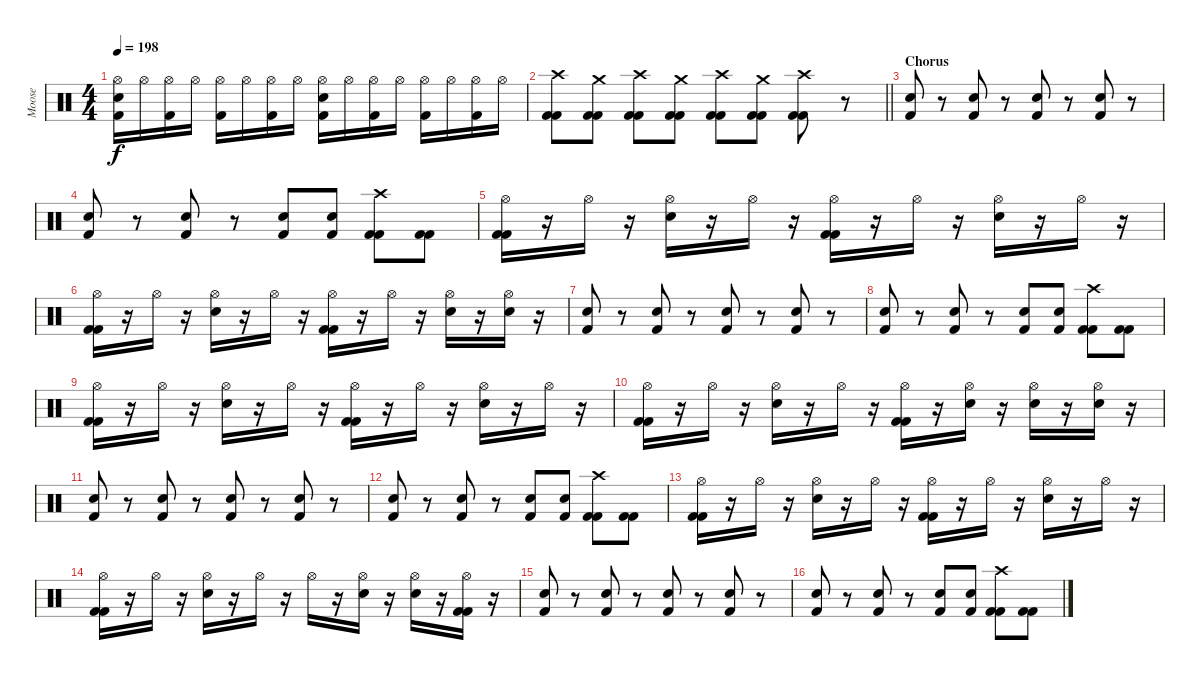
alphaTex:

\track ("Moose" "Moose") {instrument percussion}
\staff {score}
\articulation defaults
\ts (4 4)
\tempo 198
\clef neutral
\ks c
("Hi-Hat (open)" "Electric Snare (hit)" "Kick (hit) 2").16{dy f} "Hi-Hat (open)".16 ("Hi-Hat (open)" "Kick (hit) 2").16 "Hi-Hat (open)".16 ("Hi-Hat (open)" "Kick (hit) 2").16 "Hi-Hat (open)".16 ("Hi-Hat (open)" "Kick (hit) 2").16 "Hi-Hat (open)".16 ("Hi-Hat (open)" "Electric Snare (hit)" "Kick (hit) 2").16 "Hi-Hat (open)".16 ("Hi-Hat (open)" "Kick (hit) 2").16 "Hi-Hat (open)".16 ("Hi-Hat (open)" "Kick (hit) 2").16 "Hi-Hat (open)".16 ("Hi-Hat (open)" "Kick (hit) 2").16 "Hi-Hat (open)".16 |
\barLineRight lightlight
("Crash high (hit)" "Kick (hit) 2" "Kick (hit) 2").8 ("Crash medium (hit)" "Kick (hit) 2" "Kick (hit) 2").8 ("Crash high (hit)" "Kick (hit) 2" "Kick (hit) 2").8 ("Crash medium (hit)" "Kick (hit) 2" "Kick (hit) 2").8 ("Crash high (hit)" "Kick (hit) 2" "Kick (hit) 2").8 ("Crash medium (hit)" "Kick (hit) 2" "Kick (hit) 2").8 ("Crash high (hit)" "Kick (hit) 2" "Kick (hit) 2").8 r.8 |
\section ("" "Chorus")
("Electric Snare (hit)" "Kick (hit) 2").8 r.8 ("Electric Snare (hit)" "Kick (hit) 2").8 r.8 ("Electric Snare (hit)" "Kick (hit) 2").8 r.8 ("Electric Snare (hit)" "Kick (hit) 2").8 r.8 |
("Electric Snare (hit)" "Kick (hit) 2").8 r.8 ("Electric Snare (hit)" "Kick (hit) 2").8 r.8 ("Electric Snare (hit)" "Kick (hit) 2").8 ("Electric Snare (hit)" "Kick (hit) 2").8 ("Crash high (hit)" "Kick (hit) 2" "Kick (hit) 2").8 ("Kick (hit) 2" "Kick (hit) 2").8 |
("Hi-Hat (open)" "Kick (hit) 2" "Kick (hit) 2").16 r.16 "Hi-Hat (open)".16 r.16 ("Hi-Hat (open)" "Electric Snare (hit)").16 r.16 "Hi-Hat (open)".16 r.16 ("Hi-Hat (open)" "Kick (hit) 2" "Kick (hit) 2").16 r.16 "Hi-Hat (open)".16 r.16 ("Hi-Hat (open)" "Electric Snare (hit)").16 r.16 "Hi-Hat (open)".16 r.16 |
("Hi-Hat (open)" "Kick (hit) 2" "Kick (hit) 2").16 r.16 "Hi-Hat (open)".16 r.16 ("Hi-Hat (open)" "Electric Snare (hit)").16 r.16 "Hi-Hat (open)".16 r.16 ("Hi-Hat (open)" "Kick (hit) 2" "Kick (hit) 2").16 r.16 "Hi-Hat (open)".16 r.16 ("Hi-Hat (open)" "Electric Snare (hit)").16 r.16 ("Hi-Hat (open)" "Electric Snare (hit)").16 r.16 |
("Electric Snare (hit)" "Kick (hit) 2").8 r.8 ("Electric Snare (hit)" "Kick (hit) 2").8 r.8 ("Electric Snare (hit)" "Kick (hit) 2").8 r.8 ("Electric Snare (hit)" "Kick (hit) 2").8 r.8 |
("Electric Snare (hit)" "Kick (hit) 2").8 r.8 ("Electric Snare (hit)" "Kick (hit) 2").8 r.8 ("Electric Snare (hit)" "Kick (hit) 2").8 ("Electric Snare (hit)" "Kick (hit) 2").8 ("Crash high (hit)" "Kick (hit) 2" "Kick (hit) 2").8 ("Kick (hit) 2" "Kick (hit) 2").8 |
("Hi-Hat (open)" "Kick (hit) 2" "Kick (hit) 2").16 r.16 "Hi-Hat (open)".16 r.16 ("Hi-Hat (open)" "Electric Snare (hit)").16 r.16 "Hi-Hat (open)".16 r.16 ("Hi-Hat (open)" "Kick (hit) 2" "Kick (hit) 2").16 r.16 "Hi-Hat (open)".16 r.16 ("Hi-Hat (open)" "Electric Snare (hit)").16 r.16 "Hi-Hat (open)".16 r.16 |
("Hi-Hat (open)" "Kick (hit) 2" "Kick (hit) 2").16 r.16 "Hi-Hat (open)".16 r.16 ("Hi-Hat (open)" "Electric Snare (hit)").16 r.16 "Hi-Hat (open)".16 r.16 ("Hi-Hat (open)" "Kick (hit) 2" "Kick (hit) 2").16 r.16 ("Hi-Hat (open)" "Electric Snare (hit)").16 r.16 ("Hi-Hat (open)" "Electric Snare (hit)").16 r.16 ("Hi-Hat (open)" "Electric Snare (hit)").16 r.16 |
("Electric Snare (hit)" "Kick (hit) 2").8 r.8 ("Electric Snare (hit)" "Kick (hit) 2").8 r.8 ("Electric Snare (hit)" "Kick (hit) 2").8 r.8 ("Electric Snare (hit)" "Kick (hit) 2").8 r.8 |
("Electric Snare (hit)" "Kick (hit) 2").8 r.8 ("Electric Snare (hit)" "Kick (hit) 2").8 r.8 ("Electric Snare (hit)" "Kick (hit) 2").8 ("Electric Snare (hit)" "Kick (hit) 2").8 ("Crash high (hit)" "Kick (hit) 2" "Kick (hit) 2").8 ("Kick (hit) 2" "Kick (hit) 2").8 |
("Hi-Hat (open)" "Kick (hit) 2" "Kick (hit) 2").16 r.16 "Hi-Hat (open)".16 r.16 ("Hi-Hat (open)" "Electric Snare (hit)").16 r.16 "Hi-Hat (open)".16 r.16 ("Hi-Hat (open)" "Kick (hit) 2" "Kick (hit) 2").16 r.16 "Hi-Hat (open)".16 r.16 ("Hi-Hat (open)" "Electric Snare (hit)").16 r.16 "Hi-Hat (open)".16 r.16 |
("Hi-Hat (open)" "Kick (hit) 2" "Kick (hit) 2").16 r.16 "Hi-Hat (open)".16 r.16 ("Hi-Hat (open)" "Electric Snare (hit)").16 r.16 "Hi-Hat (open)".16 r.16 "Hi-Hat (open)".16 r.16 ("Hi-Hat (open)" "Electric Snare (hit)").16 r.16 ("Hi-Hat (open)" "Electric Snare (hit)").16 r.16 ("Hi-Hat (open)" "Kick (hit) 2" "Kick (hit) 2").16 r.16 |
("Electric Snare (hit)" "Kick (hit) 2").8 r.8 ("Electric Snare (hit)" "Kick (hit) 2").8 r.8 ("Electric Snare (hit)" "Kick (hit) 2").8 r.8 ("Electric Snare (hit)" "Kick (hit) 2").8 r.8 |
("Electric Snare (hit)" "Kick (hit) 2").8 r.8 ("Electric Snare (hit)" "Kick (hit) 2").8 r.8 ("Electric Snare (hit)" "Kick (hit) 2").8 ("Electric Snare (hit)" "Kick (hit) 2").8 ("Crash high (hit)" "Kick (hit) 2" "Kick (hit) 2").8 ("Kick (hit) 2" "Kick (hit) 2").8
